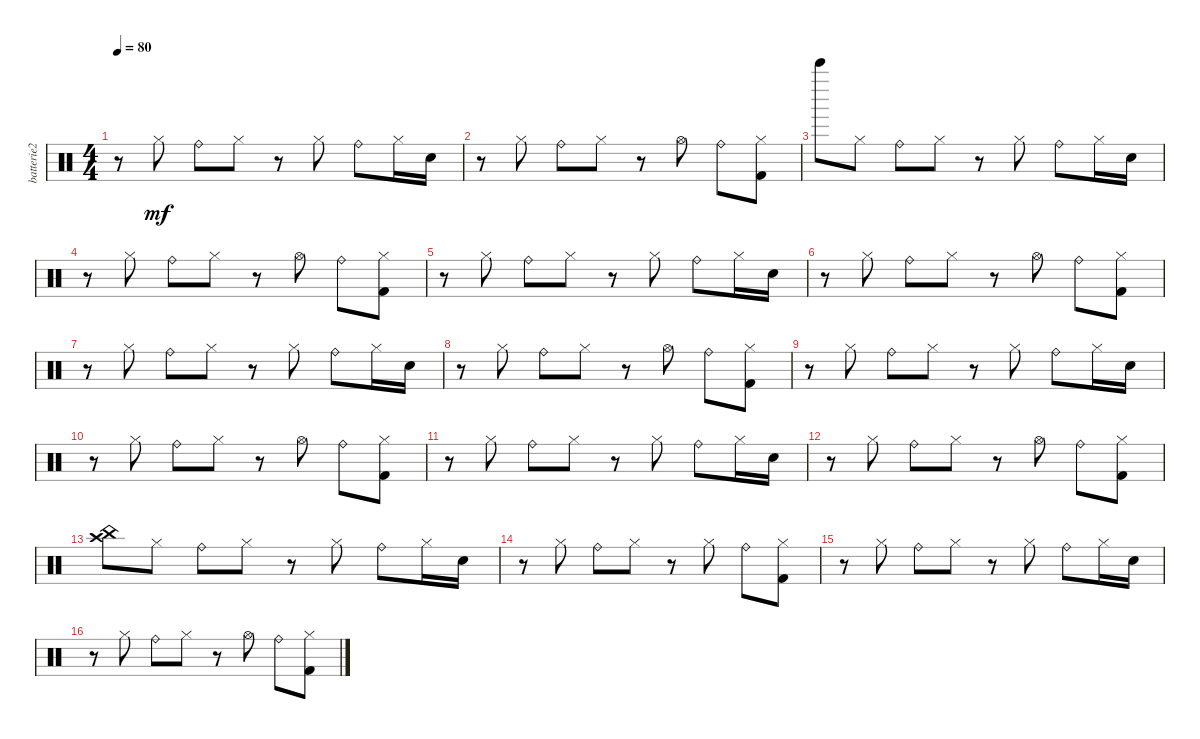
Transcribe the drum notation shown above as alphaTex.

\track ("batterie2" "batterie2") {instrument percussion}
\staff {score}
\articulation defaults
\ts (4 4)
\tempo 80
\clef neutral
\ks c
r.8{dy mf} "Hi-Hat (closed)".8 "Ride (bell)".8 "Hi-Hat (closed)".8 r.8 "Hi-Hat (closed)".8 "Ride (bell)".8 "Hi-Hat (closed)".16 "Electric Snare (hit)".16 |
r.8 "Hi-Hat (closed)".8 "Ride (bell)".8 "Hi-Hat (closed)".8 r.8 "Hi-Hat (open)".8 "Ride (bell)".8 ("Kick (hit) 2" "Hi-Hat (closed)").8 |
"Bell Tree (hit)".8 "Hi-Hat (closed)".8 "Ride (bell)".8 "Hi-Hat (closed)".8 r.8 "Hi-Hat (closed)".8 "Ride (bell)".8 "Hi-Hat (closed)".16 "Electric Snare (hit)".16 |
r.8 "Hi-Hat (closed)".8 "Ride (bell)".8 "Hi-Hat (closed)".8 r.8 "Hi-Hat (open)".8 "Ride (bell)".8 ("Kick (hit) 2" "Hi-Hat (closed)").8 |
r.8 "Hi-Hat (closed)".8 "Ride (bell)".8 "Hi-Hat (closed)".8 r.8 "Hi-Hat (closed)".8 "Ride (bell)".8 "Hi-Hat (closed)".16 "Electric Snare (hit)".16 |
r.8 "Hi-Hat (closed)".8 "Ride (bell)".8 "Hi-Hat (closed)".8 r.8 "Hi-Hat (open)".8 "Ride (bell)".8 ("Kick (hit) 2" "Hi-Hat (closed)").8 |
r.8 "Hi-Hat (closed)".8 "Ride (bell)".8 "Hi-Hat (closed)".8 r.8 "Hi-Hat (closed)".8 "Ride (bell)".8 "Hi-Hat (closed)".16 "Electric Snare (hit)".16 |
r.8 "Hi-Hat (closed)".8 "Ride (bell)".8 "Hi-Hat (closed)".8 r.8 "Hi-Hat (open)".8 "Ride (bell)".8 ("Kick (hit) 2" "Hi-Hat (closed)").8 |
r.8 "Hi-Hat (closed)".8 "Ride (bell)".8 "Hi-Hat (closed)".8 r.8 "Hi-Hat (closed)".8 "Ride (bell)".8 "Hi-Hat (closed)".16 "Electric Snare (hit)".16 |
r.8 "Hi-Hat (closed)".8 "Ride (bell)".8 "Hi-Hat (closed)".8 r.8 "Hi-Hat (open)".8 "Ride (bell)".8 ("Kick (hit) 2" "Hi-Hat (closed)").8 |
r.8 "Hi-Hat (closed)".8 "Ride (bell)".8 "Hi-Hat (closed)".8 r.8 "Hi-Hat (closed)".8 "Ride (bell)".8 "Hi-Hat (closed)".16 "Electric Snare (hit)".16 |
r.8 "Hi-Hat (closed)".8 "Ride (bell)".8 "Hi-Hat (closed)".8 r.8 "Hi-Hat (open)".8 "Ride (bell)".8 ("Kick (hit) 2" "Hi-Hat (closed)").8 |
("Crash high (hit)" "China (hit)").8 "Hi-Hat (closed)".8 "Ride (bell)".8 "Hi-Hat (closed)".8 r.8 "Hi-Hat (closed)".8 "Ride (bell)".8 "Hi-Hat (closed)".16 "Electric Snare (hit)".16 |
r.8 "Hi-Hat (closed)".8 "Ride (bell)".8 "Hi-Hat (closed)".8 r.8 "Hi-Hat (closed)".8 "Ride (bell)".8 ("Kick (hit) 2" "Hi-Hat (closed)").8 |
r.8 "Hi-Hat (closed)".8 "Ride (bell)".8 "Hi-Hat (closed)".8 r.8 "Hi-Hat (closed)".8 "Ride (bell)".8 "Hi-Hat (closed)".16 "Electric Snare (hit)".16 |
r.8 "Hi-Hat (closed)".8 "Ride (bell)".8 "Hi-Hat (closed)".8 r.8 "Hi-Hat (open)".8 "Ride (bell)".8 ("Kick (hit) 2" "Hi-Hat (closed)").8
